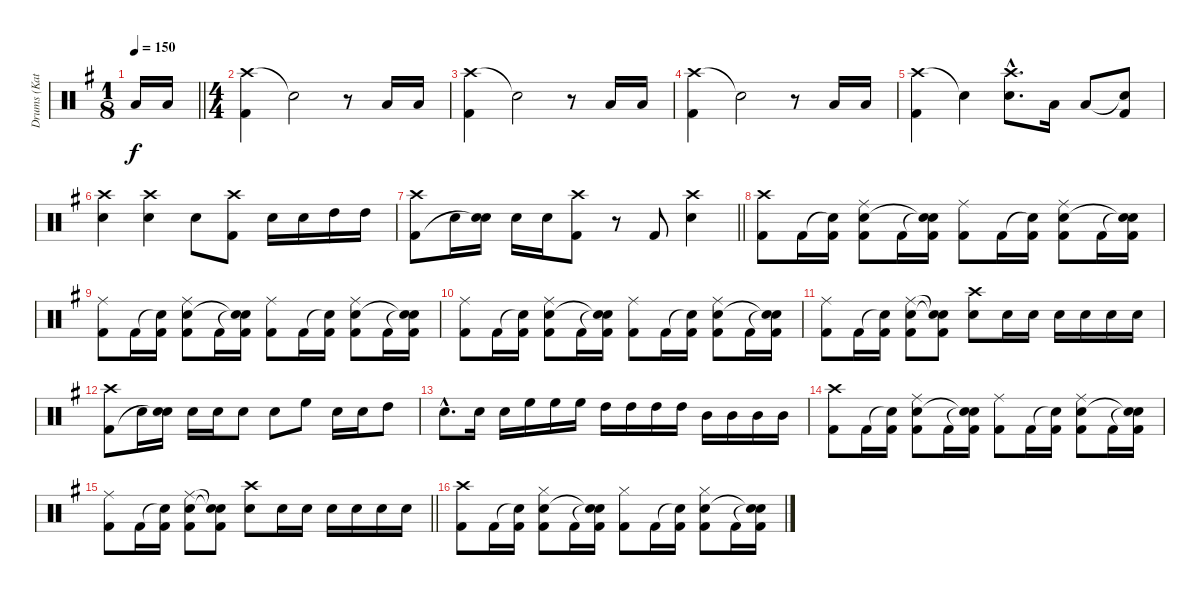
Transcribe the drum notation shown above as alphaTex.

\track ("Drums (Katsuji)" "Drums (Kat") {instrument percussion}
\staff {score}
\articulation defaults
\ts (1 8)
\tempo 150
\clef neutral
\barLineRight lightlight
\ks g "Low Tom (hit)".16{dy f} "Low Tom (hit)".16
|
\ts (4 4)
("Crash high (hit)" "Kick (hit) 2").4 "Snare (hit)"{t}.2 r.8 "Low Tom (hit)".16 "Low Tom (hit)".16 |
("Crash high (hit)" "Kick (hit) 2").4 "Snare (hit)"{t}.2 r.8 "Low Tom (hit)".16 "Low Tom (hit)".16 |
("Crash high (hit)" "Kick (hit) 2").4 "Snare (hit)"{t}.2 r.8 "Low Tom (hit)".16 "Low Tom (hit)".16 |
("Crash high (hit)" "Kick (hit) 2").4 "Snare (hit)"{t}.4 ("Crash high (hit)"{hac} "Snare (hit) 2"{hac}).8{d} "Low Tom (hit)".16 "Low Tom (hit)".8 ("Snare (hit)"{t} "Kick (hit) 2").8 |
("Crash high (hit)" "Snare (hit) 2").4 ("Crash high (hit)" "Snare (hit) 2").4 "Snare (hit) 2".8 ("Crash high (hit)" "Kick (hit) 2").8 "Snare (hit) 2".16 "Snare (hit) 2".16 "High Tom (hit)".16 "High Tom (hit)".16 |
\barLineRight lightlight
("Crash high (hit)" "Kick (hit) 2").8 "Snare (hit) 2".16 ("Snare (hit) 2" "Snare (hit)"{t}).16 "Snare (hit) 2".16 "Snare (hit) 2".16 ("Crash high (hit)" "Kick (hit) 2").8 r.8 "Kick (hit) 2".8 ("Crash high (hit)" "Snare (hit) 2").4 |
("Crash high (hit)" "Kick (hit) 2").8 "Kick (hit) 2".16 ("Snare (hit)"{t} "Kick (hit) 2").16 ("Ride (middle)" "Snare (hit) 2" "Kick (hit) 2").8 "Kick (hit) 2".16 ("Snare (hit)"{t} "Snare (hit)"{t} "Kick (hit) 2").16 ("Ride (middle)" "Kick (hit) 2").8 "Kick (hit) 2".16 ("Snare (hit)"{t} "Kick (hit) 2").16 ("Ride (middle)" "Snare (hit) 2" "Kick (hit) 2").8 "Kick (hit) 2".16 ("Snare (hit)"{t} "Snare (hit)"{t} "Kick (hit) 2").16 |
("Ride (middle)" "Kick (hit) 2").8 "Kick (hit) 2".16 ("Snare (hit)"{t} "Kick (hit) 2").16 ("Ride (middle)" "Snare (hit) 2" "Kick (hit) 2").8 "Kick (hit) 2".16 ("Snare (hit)"{t} "Snare (hit)"{t} "Kick (hit) 2").16 ("Ride (middle)" "Kick (hit) 2").8 "Kick (hit) 2".16 ("Snare (hit)"{t} "Kick (hit) 2").16 ("Ride (middle)" "Snare (hit) 2" "Kick (hit) 2").8 "Kick (hit) 2".16 ("Snare (hit)"{t} "Snare (hit)"{t} "Kick (hit) 2").16 |
("Ride (middle)" "Kick (hit) 2").8 "Kick (hit) 2".16 ("Snare (hit)"{t} "Kick (hit) 2").16 ("Ride (middle)" "Snare (hit) 2" "Kick (hit) 2").8 "Kick (hit) 2".16 ("Snare (hit)"{t} "Snare (hit)"{t} "Kick (hit) 2").16 ("Ride (middle)" "Kick (hit) 2").8 "Kick (hit) 2".16 ("Snare (hit)"{t} "Kick (hit) 2").16 ("Ride (middle)" "Snare (hit) 2" "Kick (hit) 2").8 "Kick (hit) 2".16 ("Snare (hit)"{t} "Snare (hit)"{t} "Kick (hit) 2").16 |
("Ride (middle)" "Kick (hit) 2").8 "Kick (hit) 2".16 ("Snare (hit)"{t} "Kick (hit) 2").16 ("Ride (middle)" "Snare (hit) 2" "Kick (hit) 2").8 ("Snare (hit)"{t} "Snare (hit)"{t} "Kick (hit) 2").8 ("Crash high (hit)" "Snare (hit) 2").8 "Snare (hit) 2".16 "Snare (hit) 2".16 "Snare (hit) 2".16 "Snare (hit) 2".16 "Snare (hit) 2".16 "Snare (hit) 2".16 |
("Crash high (hit)" "Kick (hit) 2").8 "Snare (hit) 2".16 ("Snare (hit) 2" "Snare (hit)"{t}).16 "Snare (hit) 2".16 "Snare (hit) 2".16 "Snare (hit) 2".8 "Snare (hit) 2".8 "High Floor Tom (hit)".8 "Snare (hit) 2".16 "Snare (hit) 2".16 "High Tom (hit)".8 |
"Snare (hit) 2"{hac}.8{d} "Snare (hit) 2".16 "Snare (hit) 2".16 "High Floor Tom (hit)".16 "High Floor Tom (hit)".16 "High Floor Tom (hit)".16 "High Tom (hit)".16 "High Tom (hit)".16 "High Tom (hit)".16 "High Tom (hit)".16 "Mid Tom (hit)".16 "Mid Tom (hit)".16 "Mid Tom (hit)".16 "Mid Tom (hit)".16 |
("Crash high (hit)" "Kick (hit) 2").8 "Kick (hit) 2".16 ("Snare (hit)"{t} "Kick (hit) 2").16 ("Ride (middle)" "Snare (hit) 2" "Kick (hit) 2").8 "Kick (hit) 2".16 ("Snare (hit)"{t} "Snare (hit)"{t} "Kick (hit) 2").16 ("Ride (middle)" "Kick (hit) 2").8 "Kick (hit) 2".16 ("Snare (hit)"{t} "Kick (hit) 2").16 ("Ride (middle)" "Snare (hit) 2" "Kick (hit) 2").8 "Kick (hit) 2".16 ("Snare (hit)"{t} "Snare (hit)"{t} "Kick (hit) 2").16 |
\barLineRight lightlight
("Ride (middle)" "Kick (hit) 2").8 "Kick (hit) 2".16 ("Snare (hit)"{t} "Kick (hit) 2").16 ("Ride (middle)" "Snare (hit) 2" "Kick (hit) 2").8 ("Snare (hit)"{t} "Snare (hit)"{t} "Kick (hit) 2").8 ("Crash high (hit)" "Snare (hit) 2").8 "Snare (hit) 2".16 "Snare (hit) 2".16 "Snare (hit) 2".16 "Snare (hit) 2".16 "Snare (hit) 2".16 "Snare (hit) 2".16 |
("Crash high (hit)" "Kick (hit) 2").8 "Kick (hit) 2".16 ("Snare (hit)"{t} "Kick (hit) 2").16 ("Hi-Hat (closed)" "Snare (hit) 2" "Kick (hit) 2").8 "Kick (hit) 2".16 ("Snare (hit)"{t} "Snare (hit)"{t} "Kick (hit) 2").16 ("Hi-Hat (closed)" "Kick (hit) 2").8 "Kick (hit) 2".16 ("Snare (hit)"{t} "Kick (hit) 2").16 ("Hi-Hat (closed)" "Snare (hit) 2" "Kick (hit) 2").8 "Kick (hit) 2".16 ("Snare (hit)"{t} "Snare (hit)"{t} "Kick (hit) 2").16
